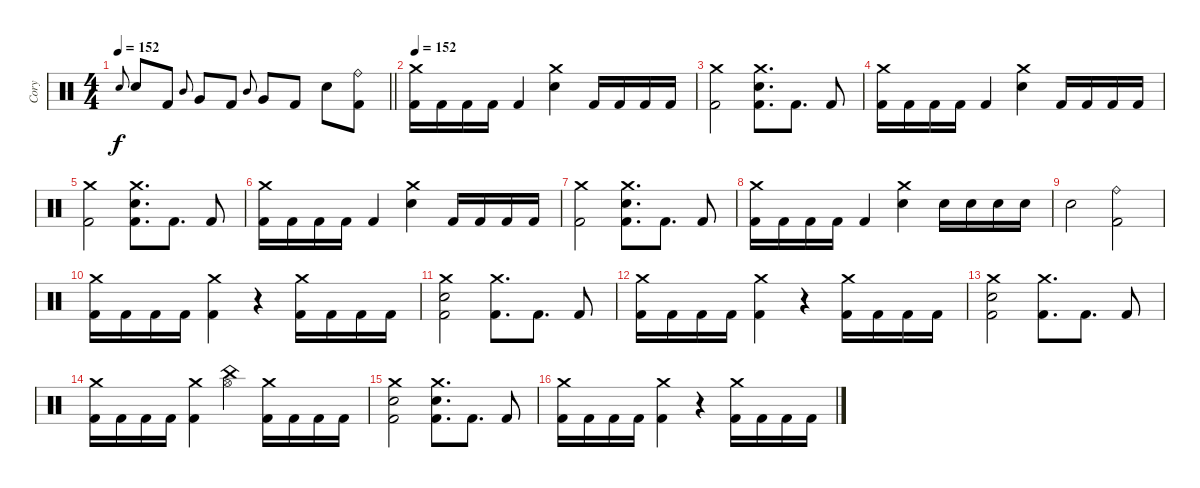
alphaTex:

\track ("Cory" "Cory") {instrument percussion}
\staff {score}
\articulation defaults
\ts (4 4)
\tempo 152
\clef neutral
\barLineRight lightlight
\ks c "Snare (hit) 2".8{gr onbeat dy f} "Snare (hit) 2".8 "Kick (hit) 2".8 "Mid Tom (hit)".8{gr onbeat} "Very Low Tom (hit)".8 "Kick (hit) 2".8 "Mid Tom (hit)".8{gr onbeat} "Very Low Tom (hit)".8 "Kick (hit) 2".8 "Snare (hit) 2".8
("Ride (bell)" "Kick (hit) 2").8 |
\tempo 152
("Crash medium (hit)" "Kick (hit) 2").16 "Kick (hit) 2".16 "Kick (hit) 2".16 "Kick (hit) 2".16 "Kick (hit) 2".4 ("Crash medium (hit)" "Snare (hit) 2").4 "Kick (hit) 2".16 "Kick (hit) 2".16 "Kick (hit) 2".16 "Kick (hit) 2".16 |
("Crash medium (hit)" "Kick (hit) 2").2 ("Crash medium (hit)" "Snare (hit) 2" "Kick (hit) 2").8{d} "Kick (hit) 2".8{d} "Kick (hit) 2".8 |
("Crash medium (hit)" "Kick (hit) 2").16 "Kick (hit) 2".16 "Kick (hit) 2".16 "Kick (hit) 2".16 "Kick (hit) 2".4 ("Crash medium (hit)" "Snare (hit) 2").4 "Kick (hit) 2".16 "Kick (hit) 2".16 "Kick (hit) 2".16 "Kick (hit) 2".16 |
("Crash medium (hit)" "Kick (hit) 2").2 ("Crash medium (hit)" "Snare (hit) 2" "Kick (hit) 2").8{d} "Kick (hit) 2".8{d} "Kick (hit) 2".8 |
("Crash medium (hit)" "Kick (hit) 2").16 "Kick (hit) 2".16 "Kick (hit) 2".16 "Kick (hit) 2".16 "Kick (hit) 2".4 ("Crash medium (hit)" "Snare (hit) 2").4 "Kick (hit) 2".16 "Kick (hit) 2".16 "Kick (hit) 2".16 "Kick (hit) 2".16 |
("Crash medium (hit)" "Kick (hit) 2").2 ("Crash medium (hit)" "Snare (hit) 2" "Kick (hit) 2").8{d} "Kick (hit) 2".8{d} "Kick (hit) 2".8 |
("Crash medium (hit)" "Kick (hit) 2").16 "Kick (hit) 2".16 "Kick (hit) 2".16 "Kick (hit) 2".16 "Kick (hit) 2".4 ("Crash medium (hit)" "Snare (hit) 2").4 "Snare (hit) 2".16 "Snare (hit) 2".16 "Snare (hit) 2".16 "Snare (hit) 2".16 |
"Snare (hit) 2".2 ("Ride (bell)" "Kick (hit) 2").2 |
("Crash medium (hit)" "Kick (hit) 2").16 "Kick (hit) 2".16 "Kick (hit) 2".16 "Kick (hit) 2".16 ("Crash medium (hit)" "Kick (hit) 2").4 r.4 ("Crash medium (hit)" "Kick (hit) 2").16 "Kick (hit) 2".16 "Kick (hit) 2".16 "Kick (hit) 2".16 |
("Crash medium (hit)" "Snare (hit) 2" "Kick (hit) 2").2 ("Crash medium (hit)" "Kick (hit) 2").8{d} "Kick (hit) 2".8{d} "Kick (hit) 2".8 |
("Crash medium (hit)" "Kick (hit) 2").16 "Kick (hit) 2".16 "Kick (hit) 2".16 "Kick (hit) 2".16 ("Crash medium (hit)" "Kick (hit) 2").4 r.4 ("Crash medium (hit)" "Kick (hit) 2").16 "Kick (hit) 2".16 "Kick (hit) 2".16 "Kick (hit) 2".16 |
("Crash medium (hit)" "Snare (hit) 2" "Kick (hit) 2").2 ("Crash medium (hit)" "Kick (hit) 2").8{d} "Kick (hit) 2".8{d} "Kick (hit) 2".8 |
("Crash medium (hit)" "Kick (hit) 2").16 "Kick (hit) 2".16 "Kick (hit) 2".16 "Kick (hit) 2".16 ("Crash medium (hit)" "Kick (hit) 2").4 ("Hi-Hat (open)" "China (hit)").4 ("Crash medium (hit)" "Kick (hit) 2").16 "Kick (hit) 2".16 "Kick (hit) 2".16 "Kick (hit) 2".16 |
("Crash medium (hit)" "Snare (hit) 2" "Kick (hit) 2").2 ("Crash medium (hit)" "Snare (hit) 2" "Kick (hit) 2").8{d} "Kick (hit) 2".8{d} "Kick (hit) 2".8 |
("Crash medium (hit)" "Kick (hit) 2").16 "Kick (hit) 2".16 "Kick (hit) 2".16 "Kick (hit) 2".16 ("Crash medium (hit)" "Kick (hit) 2").4 r.4 ("Crash medium (hit)" "Kick (hit) 2").16 "Kick (hit) 2".16 "Kick (hit) 2".16 "Kick (hit) 2".16
